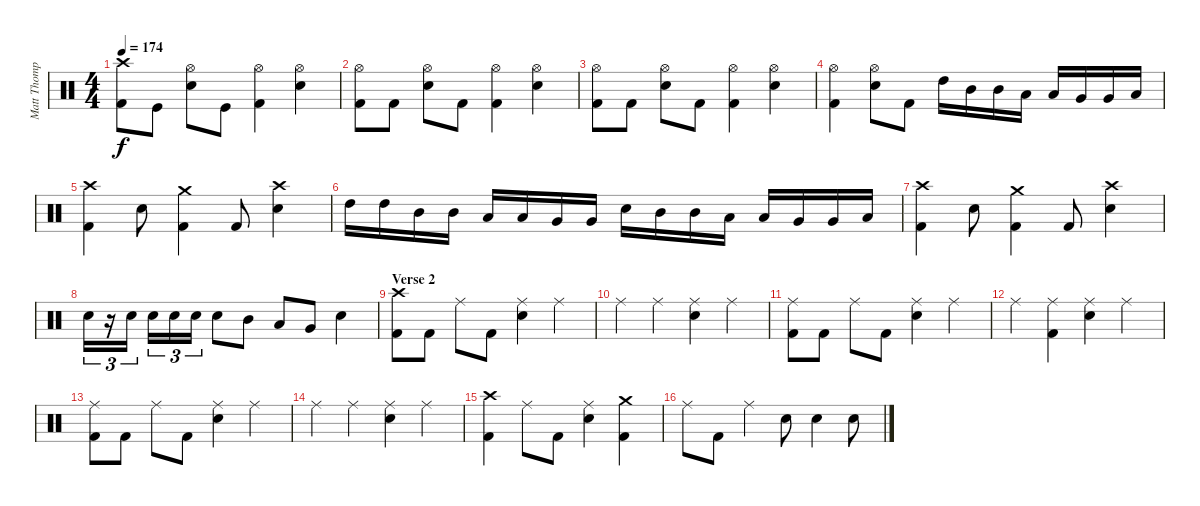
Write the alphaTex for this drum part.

\track ("Matt Thompson" "Matt Thomp") {instrument percussion}
\staff {score}
\articulation defaults
\ts (4 4)
\tempo 174
\clef neutral
\ks c
("Crash high (hit)" "Kick (hit) 2").8{dy f} "Kick (hit)".8 ("Hi-Hat (open)" "Snare (hit) 2").8 "Kick (hit)".8 ("Hi-Hat (open)" "Kick (hit) 2").4 ("Hi-Hat (open)" "Snare (hit) 2").4 |
("Hi-Hat (open)" "Kick (hit) 2").8 "Kick (hit) 2".8 ("Hi-Hat (open)" "Snare (hit) 2").8 "Kick (hit) 2".8 ("Hi-Hat (open)" "Kick (hit) 2").4 ("Hi-Hat (open)" "Snare (hit) 2").4 |
("Hi-Hat (open)" "Kick (hit) 2").8 "Kick (hit) 2".8 ("Hi-Hat (open)" "Snare (hit) 2").8 "Kick (hit) 2".8 ("Hi-Hat (open)" "Kick (hit) 2").4 ("Hi-Hat (open)" "Snare (hit) 2").4 |
("Hi-Hat (open)" "Kick (hit) 2").4 ("Hi-Hat (open)" "Snare (hit) 2").8 "Kick (hit) 2".8 "High Tom (hit)".16 "Mid Tom (hit)".16 "Mid Tom (hit)".16 "Low Tom (hit)".16 "Low Tom (hit)".16 "Very Low Tom (hit)".16 "Very Low Tom (hit)".16 "Low Floor Tom (hit)".16 |
("Crash high (hit)" "Kick (hit) 2").4 "Snare (hit) 2".8 ("Crash medium (hit)" "Kick (hit) 2").4 "Kick (hit) 2".8 ("Crash high (hit)" "Snare (hit) 2").4 |
"High Tom (hit)".16 "High Tom (hit)".16 "Mid Tom (hit)".16 "Mid Tom (hit)".16 "Low Tom (hit)".16 "Low Tom (hit)".16 "Very Low Tom (hit)".16 "Very Low Tom (hit)".16 "Snare (hit) 2".16 "Mid Tom (hit)".16 "Mid Tom (hit)".16 "Low Tom (hit)".16 "Low Tom (hit)".16 "Very Low Tom (hit)".16 "Very Low Tom (hit)".16 "Low Floor Tom (hit)".16 |
("Crash high (hit)" "Kick (hit) 2").4 "Snare (hit) 2".8 ("Crash medium (hit)" "Kick (hit) 2").4 "Kick (hit) 2".8 ("Crash high (hit)" "Snare (hit) 2").4 |
"Snare (hit) 2".16{tu (3 2)} r.16{tu (3 2)} "Snare (hit) 2".16{tu (3 2)} "Snare (hit) 2".16{tu (3 2)} "Snare (hit) 2".16{tu (3 2)} "Snare (hit) 2".16{tu (3 2)} "Snare (hit) 2".8 "Mid Tom (hit)".8 "Low Tom (hit)".8 "Very Low Tom (hit)".8 "Snare (hit) 2".4 |
\section ("" "Verse 2")
("Crash high (hit)" "Kick (hit) 2").8 "Kick (hit) 2".8 "Ride (middle)".8 "Kick (hit) 2".8 ("Ride (middle)" "Snare (hit) 2").4 "Ride (middle)".4 |
"Ride (middle)".4 "Ride (middle)".4 ("Ride (middle)" "Snare (hit) 2").4 "Ride (middle)".4 |
("Ride (middle)" "Kick (hit) 2").8 "Kick (hit) 2".8 "Ride (middle)".8 "Kick (hit) 2".8 ("Ride (middle)" "Snare (hit) 2").4 "Ride (middle)".4 |
"Ride (middle)".4 ("Ride (middle)" "Kick (hit) 2").4 ("Ride (middle)" "Snare (hit) 2").4 "Ride (middle)".4 |
("Ride (middle)" "Kick (hit) 2").8 "Kick (hit) 2".8 "Ride (middle)".8 "Kick (hit) 2".8 ("Ride (middle)" "Snare (hit) 2").4 "Ride (middle)".4 |
"Ride (middle)".4 "Ride (middle)".4 ("Ride (middle)" "Snare (hit) 2").4 "Ride (middle)".4 |
("Crash high (hit)" "Kick (hit) 2").4 "Ride (middle)".8 "Kick (hit) 2".8 ("Ride (middle)" "Snare (hit) 2").4 ("Crash medium (hit)" "Kick (hit) 2").4 |
"Ride (middle)".8 "Kick (hit) 2".8 "Ride (middle)".4 "Snare (hit) 2".8 "Snare (hit) 2".4 "Snare (hit) 2".8
